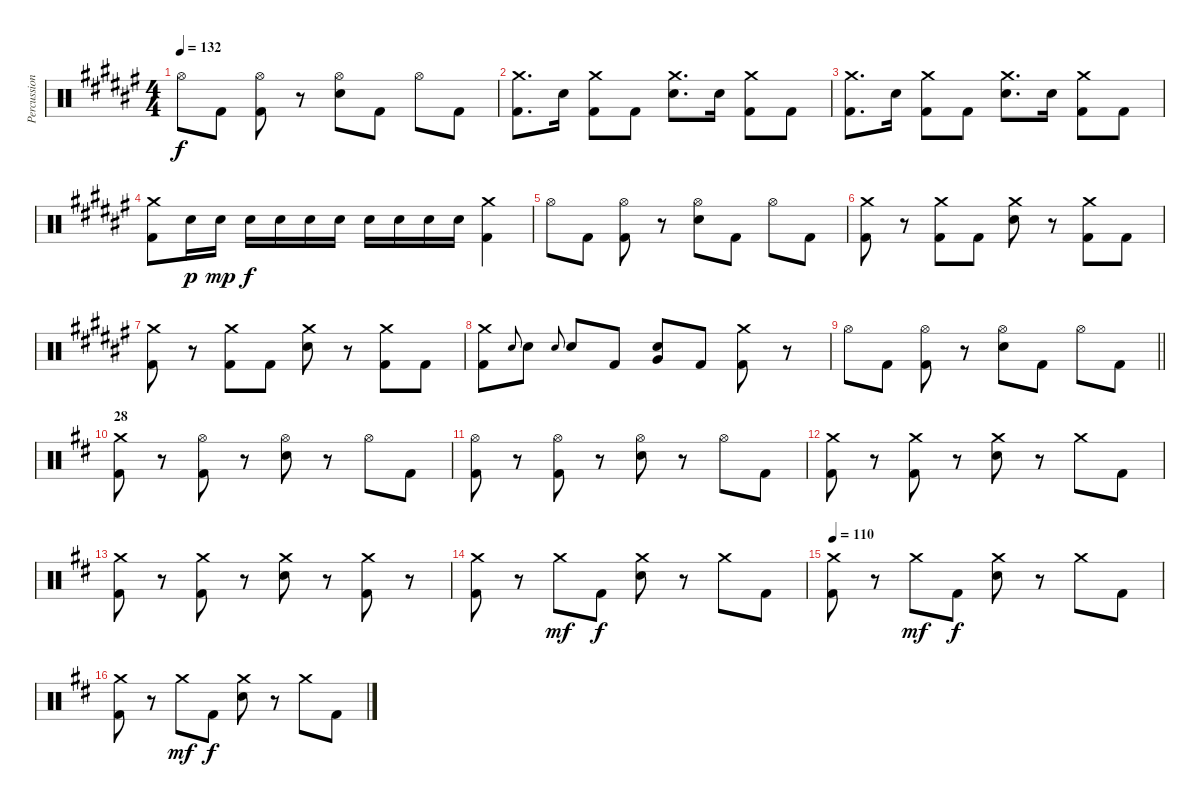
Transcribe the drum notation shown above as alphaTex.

\track ("Percussion" "Percussion") {instrument percussion}
\staff {score}
\articulation defaults
\ts (4 4)
\tempo 132
\clef neutral
\ks d#minor "Hi-Hat (open)".8{dy f} "Kick (hit) 2".8
("Hi-Hat (open)" "Kick (hit) 2").8 r.8 ("Hi-Hat (open)" "Snare (hit) 2").8 "Kick (hit) 2".8 "Hi-Hat (open)".8 "Kick (hit) 2".8 |
("Crash medium (hit)" "Kick (hit) 2").8{d} "Snare (hit) 2".16 ("Crash medium (hit)" "Kick (hit) 2").8 "Kick (hit) 2".8 ("Crash medium (hit)" "Snare (hit) 2").8{d} "Snare (hit) 2".16 ("Crash medium (hit)" "Kick (hit) 2").8 "Kick (hit) 2".8 |
("Crash medium (hit)" "Kick (hit) 2").8{d} "Snare (hit) 2".16 ("Crash medium (hit)" "Kick (hit) 2").8 "Kick (hit) 2".8 ("Crash medium (hit)" "Snare (hit) 2").8{d} "Snare (hit) 2".16 ("Crash medium (hit)" "Kick (hit) 2").8 "Kick (hit) 2".8 |
("Crash medium (hit)" "Kick (hit) 2").8 "Snare (hit) 2".16{dy p} "Snare (hit) 2".16{dy mp} "Snare (hit) 2".16{dy f} "Snare (hit) 2".16 "Snare (hit) 2".16 "Snare (hit) 2".16 "Snare (hit) 2".16 "Snare (hit) 2".16 "Snare (hit) 2".16 "Snare (hit) 2".16 ("Crash medium (hit)" "Kick (hit) 2").4 |
"Hi-Hat (open)".8 "Kick (hit) 2".8 ("Hi-Hat (open)" "Kick (hit) 2").8 r.8 ("Hi-Hat (open)" "Snare (hit) 2").8 "Kick (hit) 2".8 "Hi-Hat (open)".8 "Kick (hit) 2".8 |
("Crash medium (hit)" "Kick (hit) 2").8 r.8 ("Crash medium (hit)" "Kick (hit) 2").8 "Kick (hit) 2".8 ("Crash medium (hit)" "Snare (hit) 2").8 r.8 ("Crash medium (hit)" "Kick (hit) 2").8 "Kick (hit) 2".8 |
("Crash medium (hit)" "Kick (hit) 2").8 r.8 ("Crash medium (hit)" "Kick (hit) 2").8 "Kick (hit) 2".8 ("Crash medium (hit)" "Snare (hit) 2").8 r.8 ("Crash medium (hit)" "Kick (hit) 2").8 "Kick (hit) 2".8 |
("Crash medium (hit)" "Kick (hit) 2").8 "Snare (hit) 2".8{gr onbeat} "Snare (hit) 2".8 "Snare (hit) 2".8{gr onbeat} "Snare (hit) 2".8 "Kick (hit) 2".8 ("Snare (hit) 2" "Very Low Tom (hit)").8{bu 60} "Kick (hit) 2".8 ("Crash medium (hit)" "Kick (hit) 2").8 r.8 |
\barLineRight lightlight "Hi-Hat (open)".8 "Kick (hit) 2".8
("Hi-Hat (open)" "Kick (hit) 2").8 r.8 ("Hi-Hat (open)" "Snare (hit) 2").8 "Kick (hit) 2".8 "Hi-Hat (open)".8 "Kick (hit) 2".8 |
\section ("" "28")
\ks bminor
("Crash medium (hit)" "Kick (hit) 2").8 r.8 ("Hi-Hat (open)" "Kick (hit) 2").8 r.8 ("Hi-Hat (open)" "Snare (hit) 2").8 r.8 "Hi-Hat (open)".8 "Kick (hit) 2".8 |
("Hi-Hat (open)" "Kick (hit) 2").8 r.8 ("Hi-Hat (open)" "Kick (hit) 2").8 r.8 ("Hi-Hat (open)" "Snare (hit) 2").8 r.8 "Hi-Hat (open)".8 "Kick (hit) 2".8 |
("Crash medium (hit)" "Kick (hit) 2").8 r.8 ("Crash medium (hit)" "Kick (hit) 2").8 r.8 ("Crash medium (hit)" "Snare (hit) 2").8 r.8 "Crash medium (hit)".8 "Kick (hit) 2".8 |
("Crash medium (hit)" "Kick (hit) 2").8 r.8 ("Crash medium (hit)" "Kick (hit) 2").8 r.8 ("Crash medium (hit)" "Snare (hit) 2").8 r.8 ("Crash medium (hit)" "Kick (hit) 2").8 r.8 |
("Crash medium (hit)" "Kick (hit) 2").8 r.8 "Crash medium (hit)".8{dy mf} "Kick (hit) 2".8{dy f} ("Crash medium (hit)" "Snare (hit) 2").8 r.8 "Crash medium (hit)".8 "Kick (hit) 2".8 |
\tempo 110
("Crash medium (hit)" "Kick (hit) 2").8 r.8 "Crash medium (hit)".8{dy mf} "Kick (hit) 2".8{dy f} ("Crash medium (hit)" "Snare (hit) 2").8 r.8 "Crash medium (hit)".8 "Kick (hit) 2".8 |
("Crash medium (hit)" "Kick (hit) 2").8 r.8 "Crash medium (hit)".8{dy mf} "Kick (hit) 2".8{dy f} ("Crash medium (hit)" "Snare (hit) 2").8 r.8 "Crash medium (hit)".8 "Kick (hit) 2".8
